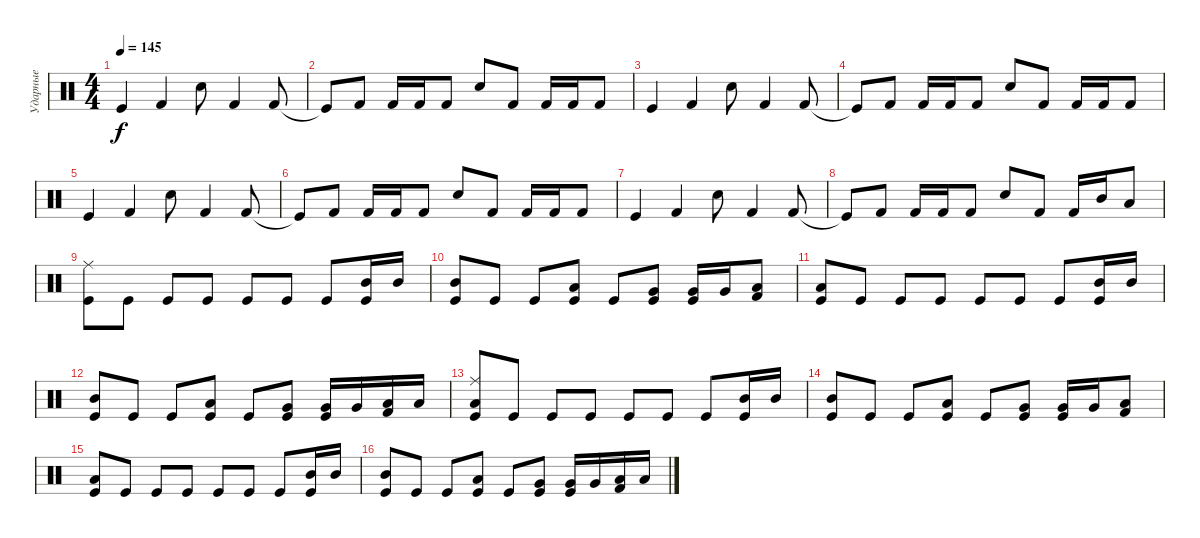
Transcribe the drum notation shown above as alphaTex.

\track ("Ударные" "Ударные") {instrument percussion}
\staff {score}
\articulation defaults
\ts (4 4)
\tempo 145
\clef neutral
\ks c "Kick (hit)".4{dy f} "Kick (hit) 2".4 "Electric Snare (hit)".8 "Kick (hit) 2".4 "Kick (hit) 2".8
|
"Kick (hit)"{t}.8 "Kick (hit) 2".8 "Kick (hit) 2".16 "Kick (hit) 2".16 "Kick (hit) 2".8 "Electric Snare (hit)".8 "Kick (hit) 2".8 "Kick (hit) 2".16 "Kick (hit) 2".16 "Kick (hit) 2".8 |
"Kick (hit)".4 "Kick (hit) 2".4 "Electric Snare (hit)".8 "Kick (hit) 2".4 "Kick (hit) 2".8 |
"Kick (hit)"{t}.8 "Kick (hit) 2".8 "Kick (hit) 2".16 "Kick (hit) 2".16 "Kick (hit) 2".8 "Electric Snare (hit)".8 "Kick (hit) 2".8 "Kick (hit) 2".16 "Kick (hit) 2".16 "Kick (hit) 2".8 |
"Kick (hit)".4 "Kick (hit) 2".4 "Electric Snare (hit)".8 "Kick (hit) 2".4 "Kick (hit) 2".8 |
"Kick (hit)"{t}.8 "Kick (hit) 2".8 "Kick (hit) 2".16 "Kick (hit) 2".16 "Kick (hit) 2".8 "Electric Snare (hit)".8 "Kick (hit) 2".8 "Kick (hit) 2".16 "Kick (hit) 2".16 "Kick (hit) 2".8 |
"Kick (hit)".4 "Kick (hit) 2".4 "Electric Snare (hit)".8 "Kick (hit) 2".4 "Kick (hit) 2".8 |
"Kick (hit)"{t}.8 "Kick (hit) 2".8 "Kick (hit) 2".16 "Kick (hit) 2".16 "Kick (hit) 2".8 "Electric Snare (hit)".8 "Kick (hit) 2".8 "Kick (hit) 2".16 "Mid Tom (hit)".16 "Low Tom (hit)".8 |
("Ride (middle)" "Kick (hit)").8 "Kick (hit)".8 "Kick (hit)".8 "Kick (hit)".8 "Kick (hit)".8 "Kick (hit)".8 "Kick (hit)".8 ("Mid Tom (hit)" "Kick (hit)").16 "Mid Tom (hit)".16 |
("Mid Tom (hit)" "Kick (hit)").8 "Kick (hit)".8 "Kick (hit)".8 ("Low Tom (hit)" "Kick (hit)").8 "Kick (hit)".8 ("Very Low Tom (hit)" "Kick (hit)").8 ("Very Low Tom (hit)" "Kick (hit)").16 "Very Low Tom (hit)".16 ("Low Floor Tom (hit)" "Kick (hit) 2").8 |
("Low Floor Tom (hit)" "Kick (hit)").8 "Kick (hit)".8 "Kick (hit)".8 "Kick (hit)".8 "Kick (hit)".8 "Kick (hit)".8 "Kick (hit)".8 ("Mid Tom (hit)" "Kick (hit)").16 "Mid Tom (hit)".16 |
("Mid Tom (hit)" "Kick (hit)").8 "Kick (hit)".8 "Kick (hit)".8 ("Low Tom (hit)" "Kick (hit)").8 "Kick (hit)".8 ("Very Low Tom (hit)" "Kick (hit)").8 ("Very Low Tom (hit)" "Kick (hit)").16 "Very Low Tom (hit)".16 ("Low Floor Tom (hit)" "Kick (hit) 2").16 "Low Floor Tom (hit)".16 |
("Ride (middle)" "Kick (hit)" "Low Floor Tom (hit)").8 "Kick (hit)".8 "Kick (hit)".8 "Kick (hit)".8 "Kick (hit)".8 "Kick (hit)".8 "Kick (hit)".8 ("Mid Tom (hit)" "Kick (hit)").16 "Mid Tom (hit)".16 |
("Mid Tom (hit)" "Kick (hit)").8 "Kick (hit)".8 "Kick (hit)".8 ("Low Tom (hit)" "Kick (hit)").8 "Kick (hit)".8 ("Very Low Tom (hit)" "Kick (hit)").8 ("Very Low Tom (hit)" "Kick (hit)").16 "Very Low Tom (hit)".16 ("Low Floor Tom (hit)" "Kick (hit) 2").8 |
("Kick (hit)" "Low Floor Tom (hit)").8 "Kick (hit)".8 "Kick (hit)".8 "Kick (hit)".8 "Kick (hit)".8 "Kick (hit)".8 "Kick (hit)".8 ("Mid Tom (hit)" "Kick (hit)").16 "Mid Tom (hit)".16 |
("Mid Tom (hit)" "Kick (hit)").8 "Kick (hit)".8 "Kick (hit)".8 ("Low Tom (hit)" "Kick (hit)").8 "Kick (hit)".8 ("Very Low Tom (hit)" "Kick (hit)").8 ("Very Low Tom (hit)" "Kick (hit)").16 "Very Low Tom (hit)".16 ("Low Floor Tom (hit)" "Kick (hit) 2").16 "Low Floor Tom (hit)".16
